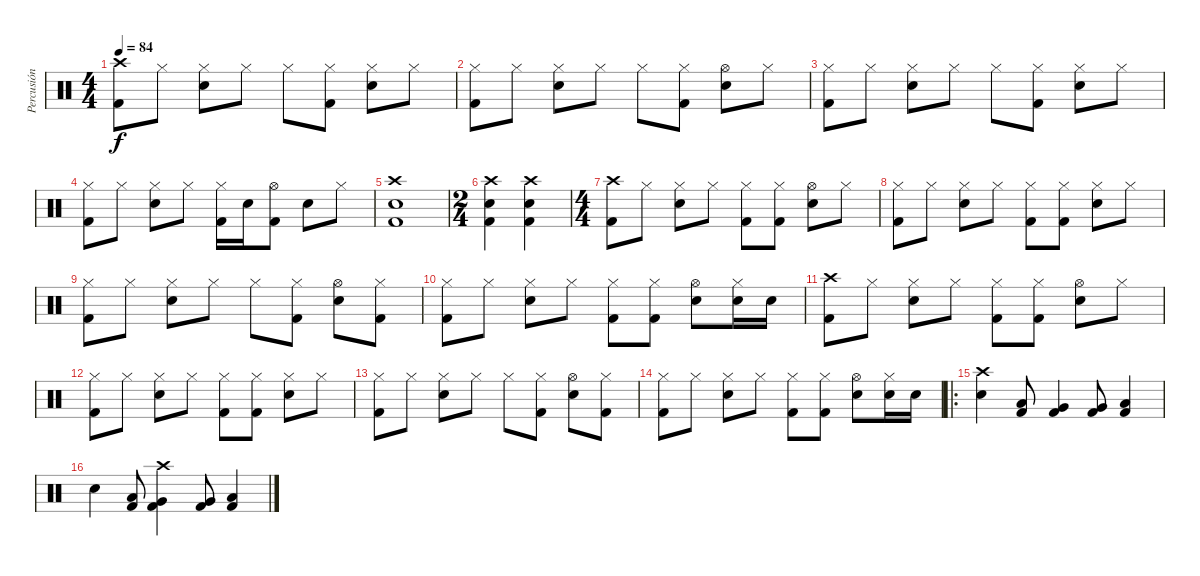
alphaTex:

\track ("Percusión" "Percusión") {instrument percussion}
\staff {score}
\articulation defaults
\ts (4 4)
\tempo 84
\clef neutral
\ks c
("Crash high (hit)" "Kick (hit) 2").8{dy f} "Hi-Hat (closed)".8 ("Hi-Hat (closed)" "Electric Snare (hit)").8 "Hi-Hat (closed)".8 "Hi-Hat (closed)".8 ("Hi-Hat (closed)" "Kick (hit) 2").8 ("Hi-Hat (closed)" "Electric Snare (hit)").8 "Hi-Hat (closed)".8 |
("Hi-Hat (closed)" "Kick (hit) 2").8 "Hi-Hat (closed)".8 ("Hi-Hat (closed)" "Electric Snare (hit)").8 "Hi-Hat (closed)".8 "Hi-Hat (closed)".8 ("Hi-Hat (closed)" "Kick (hit) 2").8 ("Hi-Hat (open)" "Electric Snare (hit)").8 "Hi-Hat (closed)".8 |
("Hi-Hat (closed)" "Kick (hit) 2").8 "Hi-Hat (closed)".8 ("Hi-Hat (closed)" "Electric Snare (hit)").8 "Hi-Hat (closed)".8 "Hi-Hat (closed)".8 ("Hi-Hat (closed)" "Kick (hit) 2").8 ("Hi-Hat (closed)" "Electric Snare (hit)").8 "Hi-Hat (closed)".8 |
("Hi-Hat (closed)" "Kick (hit) 2").8 "Hi-Hat (closed)".8 ("Hi-Hat (closed)" "Electric Snare (hit)").8 "Hi-Hat (closed)".8 ("Hi-Hat (closed)" "Kick (hit) 2").16 "Electric Snare (hit)".16 ("Hi-Hat (open)" "Kick (hit) 2").8 "Electric Snare (hit)".8 "Hi-Hat (closed)".8 |
("Crash high (hit)" "Kick (hit) 2" "Electric Snare (hit)").1 |
\ts (2 4)
("Crash high (hit)" "Kick (hit) 2" "Electric Snare (hit)").4 ("Crash high (hit)" "Kick (hit) 2" "Electric Snare (hit)").4 |
\ts (4 4)
("Crash high (hit)" "Kick (hit) 2").8 "Hi-Hat (closed)".8 ("Hi-Hat (closed)" "Electric Snare (hit)").8 "Hi-Hat (closed)".8 ("Hi-Hat (closed)" "Kick (hit) 2").8 ("Hi-Hat (closed)" "Kick (hit) 2").8 ("Hi-Hat (open)" "Electric Snare (hit)").8 "Hi-Hat (closed)".8 |
("Hi-Hat (closed)" "Kick (hit) 2").8 "Hi-Hat (closed)".8 ("Hi-Hat (closed)" "Electric Snare (hit)").8 "Hi-Hat (closed)".8 ("Hi-Hat (closed)" "Kick (hit) 2").8 ("Hi-Hat (closed)" "Kick (hit) 2").8 ("Hi-Hat (closed)" "Electric Snare (hit)").8 "Hi-Hat (closed)".8 |
("Hi-Hat (closed)" "Kick (hit) 2").8 "Hi-Hat (closed)".8 ("Hi-Hat (closed)" "Electric Snare (hit)").8 "Hi-Hat (closed)".8 "Hi-Hat (closed)".8 ("Hi-Hat (closed)" "Kick (hit) 2").8 ("Hi-Hat (open)" "Electric Snare (hit)").8 ("Hi-Hat (closed)" "Kick (hit) 2").8 |
("Hi-Hat (closed)" "Kick (hit) 2").8 "Hi-Hat (closed)".8 ("Hi-Hat (closed)" "Electric Snare (hit)").8 "Hi-Hat (closed)".8 ("Hi-Hat (closed)" "Kick (hit) 2").8 ("Hi-Hat (closed)" "Kick (hit) 2").8 ("Hi-Hat (open)" "Electric Snare (hit)").8 ("Hi-Hat (closed)" "Electric Snare (hit)").16 "Electric Snare (hit)".16 |
("Crash high (hit)" "Kick (hit) 2").8 "Hi-Hat (closed)".8 ("Hi-Hat (closed)" "Electric Snare (hit)").8 "Hi-Hat (closed)".8 ("Hi-Hat (closed)" "Kick (hit) 2").8 ("Hi-Hat (closed)" "Kick (hit) 2").8 ("Hi-Hat (open)" "Electric Snare (hit)").8 "Hi-Hat (closed)".8 |
("Hi-Hat (closed)" "Kick (hit) 2").8 "Hi-Hat (closed)".8 ("Hi-Hat (closed)" "Electric Snare (hit)").8 "Hi-Hat (closed)".8 ("Hi-Hat (closed)" "Kick (hit) 2").8 ("Hi-Hat (closed)" "Kick (hit) 2").8 ("Hi-Hat (closed)" "Electric Snare (hit)").8 "Hi-Hat (closed)".8 |
("Hi-Hat (closed)" "Kick (hit) 2").8 "Hi-Hat (closed)".8 ("Hi-Hat (closed)" "Electric Snare (hit)").8 "Hi-Hat (closed)".8 "Hi-Hat (closed)".8 ("Hi-Hat (closed)" "Kick (hit) 2").8 ("Hi-Hat (open)" "Electric Snare (hit)").8 ("Hi-Hat (closed)" "Kick (hit) 2").8 |
("Hi-Hat (closed)" "Kick (hit) 2").8 "Hi-Hat (closed)".8 ("Hi-Hat (closed)" "Electric Snare (hit)").8 "Hi-Hat (closed)".8 ("Hi-Hat (closed)" "Kick (hit) 2").8 ("Hi-Hat (closed)" "Kick (hit) 2").8 ("Hi-Hat (open)" "Electric Snare (hit)").8 ("Hi-Hat (closed)" "Electric Snare (hit)").16 "Electric Snare (hit)".16 |
\ro
("Crash high (hit)" "Electric Snare (hit)").4 ("Low Tom (hit)" "Kick (hit) 2").8 ("Very Low Tom (hit)" "Kick (hit) 2").4 ("Very Low Tom (hit)" "Kick (hit) 2").8 ("Low Floor Tom (hit)" "Kick (hit) 2").4 |
"Electric Snare (hit)".4 ("Low Tom (hit)" "Kick (hit) 2").8 ("Crash high (hit)" "Very Low Tom (hit)" "Kick (hit) 2").4 ("Very Low Tom (hit)" "Kick (hit) 2").8 ("Low Floor Tom (hit)" "Kick (hit) 2").4
